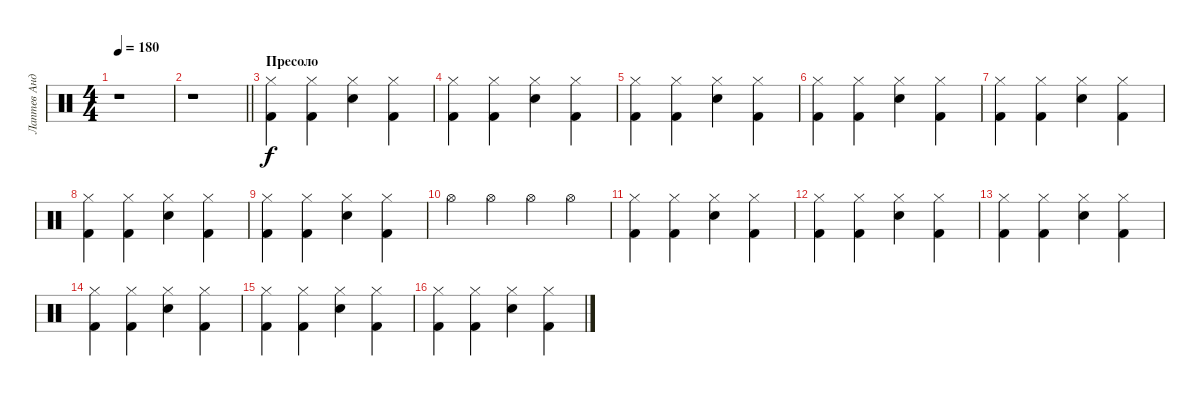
\track ("Лаптев Андрей" "Лаптев Анд") {instrument percussion}
\staff {score}
\articulation defaults
\ts (4 4)
\tempo 180
\clef neutral
\ks c
r.1{dy f} |
\barLineRight lightlight
r.1 |
\section ("" "Пресоло")
("Kick (hit) 2" "Hi-Hat (closed)").4 ("Kick (hit) 2" "Hi-Hat (closed)").4 ("Snare (hit) 2" "Hi-Hat (closed)").4 ("Kick (hit) 2" "Hi-Hat (closed)").4 |
("Kick (hit) 2" "Hi-Hat (closed)").4 ("Kick (hit) 2" "Hi-Hat (closed)").4 ("Snare (hit) 2" "Hi-Hat (closed)").4 ("Kick (hit) 2" "Hi-Hat (closed)").4 |
("Kick (hit) 2" "Hi-Hat (closed)").4 ("Kick (hit) 2" "Hi-Hat (closed)").4 ("Snare (hit) 2" "Hi-Hat (closed)").4 ("Kick (hit) 2" "Hi-Hat (closed)").4 |
("Kick (hit) 2" "Hi-Hat (closed)").4 ("Kick (hit) 2" "Hi-Hat (closed)").4 ("Snare (hit) 2" "Hi-Hat (closed)").4 ("Kick (hit) 2" "Hi-Hat (closed)").4 |
("Kick (hit) 2" "Hi-Hat (closed)").4 ("Kick (hit) 2" "Hi-Hat (closed)").4 ("Snare (hit) 2" "Hi-Hat (closed)").4 ("Kick (hit) 2" "Hi-Hat (closed)").4 |
("Kick (hit) 2" "Hi-Hat (closed)").4 ("Kick (hit) 2" "Hi-Hat (closed)").4 ("Snare (hit) 2" "Hi-Hat (closed)").4 ("Kick (hit) 2" "Hi-Hat (closed)").4 |
("Kick (hit) 2" "Hi-Hat (closed)").4 ("Kick (hit) 2" "Hi-Hat (closed)").4 ("Snare (hit) 2" "Hi-Hat (closed)").4 ("Kick (hit) 2" "Hi-Hat (closed)").4 |
"Hi-Hat (open)".4 "Hi-Hat (open)".4 "Hi-Hat (open)".4 "Hi-Hat (open)".4 |
("Kick (hit) 2" "Hi-Hat (closed)").4 ("Kick (hit) 2" "Hi-Hat (closed)").4 ("Snare (hit) 2" "Hi-Hat (closed)").4 ("Kick (hit) 2" "Hi-Hat (closed)").4 |
("Kick (hit) 2" "Hi-Hat (closed)").4 ("Kick (hit) 2" "Hi-Hat (closed)").4 ("Snare (hit) 2" "Hi-Hat (closed)").4 ("Kick (hit) 2" "Hi-Hat (closed)").4 |
("Kick (hit) 2" "Hi-Hat (closed)").4 ("Kick (hit) 2" "Hi-Hat (closed)").4 ("Snare (hit) 2" "Hi-Hat (closed)").4 ("Kick (hit) 2" "Hi-Hat (closed)").4 |
("Kick (hit) 2" "Hi-Hat (closed)").4 ("Kick (hit) 2" "Hi-Hat (closed)").4 ("Snare (hit) 2" "Hi-Hat (closed)").4 ("Kick (hit) 2" "Hi-Hat (closed)").4 |
("Kick (hit) 2" "Hi-Hat (closed)").4 ("Kick (hit) 2" "Hi-Hat (closed)").4 ("Snare (hit) 2" "Hi-Hat (closed)").4 ("Kick (hit) 2" "Hi-Hat (closed)").4 |
("Kick (hit) 2" "Hi-Hat (closed)").4 ("Kick (hit) 2" "Hi-Hat (closed)").4 ("Snare (hit) 2" "Hi-Hat (closed)").4 ("Kick (hit) 2" "Hi-Hat (closed)").4
